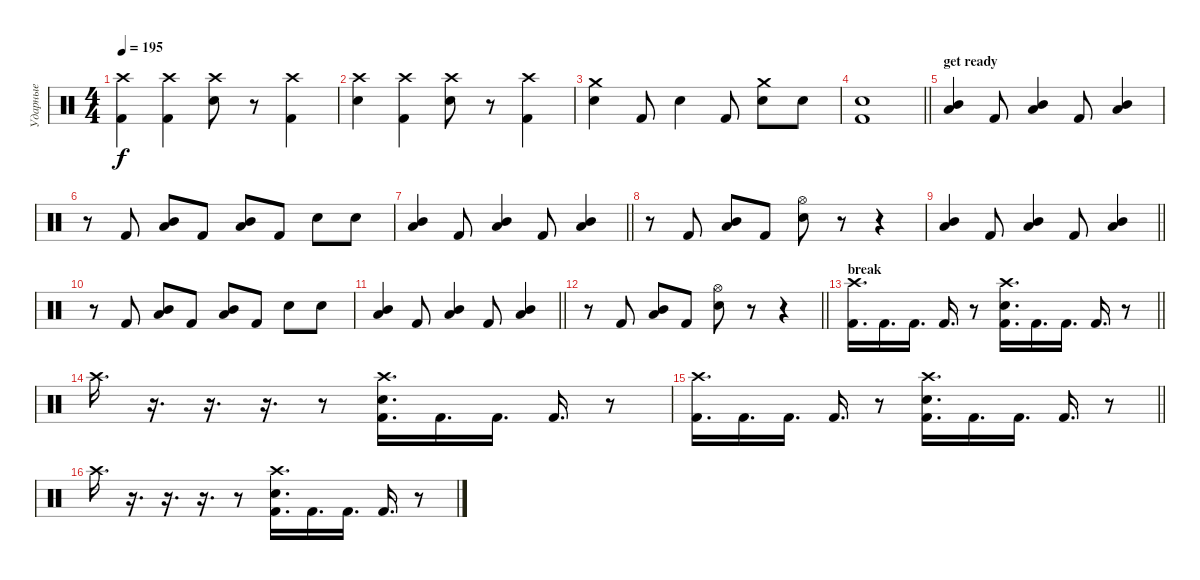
\track ("Ударные" "Ударные") {instrument percussion}
\staff {score}
\articulation defaults
\ts (4 4)
\tempo 195
\clef neutral
\ks c
("Crash high (hit)" "Kick (hit) 2").4{dy f} ("Crash high (hit)" "Kick (hit) 2").4 ("Crash high (hit)" "Electric Snare (hit)").8 r.8 ("Crash high (hit)" "Kick (hit) 2").4 |
("Crash high (hit)" "Electric Snare (hit)").4 ("Crash high (hit)" "Kick (hit) 2").4 ("Crash high (hit)" "Electric Snare (hit)").8 r.8 ("Crash high (hit)" "Kick (hit) 2").4 |
("Crash medium (hit)" "Electric Snare (hit)").4 "Kick (hit) 2".8 "Electric Snare (hit)".4 "Kick (hit) 2".8 ("Crash medium (hit)" "Electric Snare (hit)").8 "Electric Snare (hit)".8 |
\barLineRight lightlight
("Electric Snare (hit)" "Kick (hit) 2").1 |
\section ("" "get ready")
("Mid Tom (hit)" "Low Tom (hit)").4 "Kick (hit) 2".8 ("Mid Tom (hit)" "Low Tom (hit)").4 "Kick (hit) 2".8 ("Mid Tom (hit)" "Low Tom (hit)").4 |
r.8 "Kick (hit) 2".8 ("Mid Tom (hit)" "Low Tom (hit)").8 "Kick (hit) 2".8 ("Mid Tom (hit)" "Low Tom (hit)").8 "Kick (hit) 2".8 "Electric Snare (hit)".8 "Electric Snare (hit)".8 |
\barLineRight lightlight
("Mid Tom (hit)" "Low Tom (hit)").4 "Kick (hit) 2".8 ("Mid Tom (hit)" "Low Tom (hit)").4 "Kick (hit) 2".8 ("Mid Tom (hit)" "Low Tom (hit)").4 |
r.8 "Kick (hit) 2".8 ("Mid Tom (hit)" "Low Tom (hit)").8 "Kick (hit) 2".8 ("Hi-Hat (open)" "Electric Snare (hit)").8 r.8 r.4 |
\barLineRight lightlight
("Mid Tom (hit)" "Low Tom (hit)").4 "Kick (hit) 2".8 ("Mid Tom (hit)" "Low Tom (hit)").4 "Kick (hit) 2".8 ("Mid Tom (hit)" "Low Tom (hit)").4 |
r.8 "Kick (hit) 2".8 ("Mid Tom (hit)" "Low Tom (hit)").8 "Kick (hit) 2".8 ("Mid Tom (hit)" "Low Tom (hit)").8 "Kick (hit) 2".8 "Electric Snare (hit)".8 "Electric Snare (hit)".8 |
\barLineRight lightlight
("Mid Tom (hit)" "Low Tom (hit)").4 "Kick (hit) 2".8 ("Mid Tom (hit)" "Low Tom (hit)").4 "Kick (hit) 2".8 ("Mid Tom (hit)" "Low Tom (hit)").4 |
\barLineRight lightlight
r.8 "Kick (hit) 2".8 ("Mid Tom (hit)" "Low Tom (hit)").8 "Kick (hit) 2".8 ("Hi-Hat (open)" "Electric Snare (hit)").8 r.8 r.4 |
\section ("" "break")
\barLineRight lightlight
("Crash high (hit)" "Kick (hit) 2").16{d} "Kick (hit) 2".16{d} "Kick (hit) 2".16{d} "Kick (hit) 2".16{d} r.8 ("Crash high (hit)" "Electric Snare (hit)" "Kick (hit) 2").16{d} "Kick (hit) 2".16{d} "Kick (hit) 2".16{d} "Kick (hit) 2".16{d} r.8 |
"Crash high (hit)".16{d} r.16{d} r.16{d} r.16{d} r.8 ("Crash high (hit)" "Electric Snare (hit)" "Kick (hit) 2").16{d} "Kick (hit) 2".16{d} "Kick (hit) 2".16{d} "Kick (hit) 2".16{d} r.8 |
\barLineRight lightlight
("Crash high (hit)" "Kick (hit) 2").16{d} "Kick (hit) 2".16{d} "Kick (hit) 2".16{d} "Kick (hit) 2".16{d} r.8 ("Crash high (hit)" "Electric Snare (hit)" "Kick (hit) 2").16{d} "Kick (hit) 2".16{d} "Kick (hit) 2".16{d} "Kick (hit) 2".16{d} r.8 |
"Crash high (hit)".16{d} r.16{d} r.16{d} r.16{d} r.8 ("Crash high (hit)" "Electric Snare (hit)" "Kick (hit) 2").16{d} "Kick (hit) 2".16{d} "Kick (hit) 2".16{d} "Kick (hit) 2".16{d} r.8
